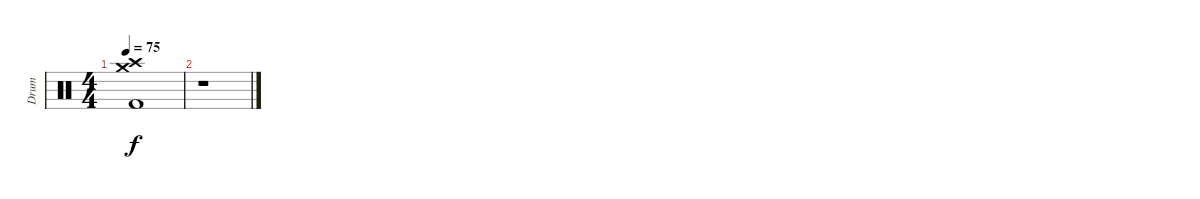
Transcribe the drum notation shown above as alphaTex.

\track ("Drum" "Drum") {instrument percussion}
\staff {score}
\articulation defaults
\ts (4 4)
\tempo 75
\clef neutral
\ks c
("Kick (hit) 2" "Crash high (hit)" "Crash medium (hit)").1{dy f} |
r.1
